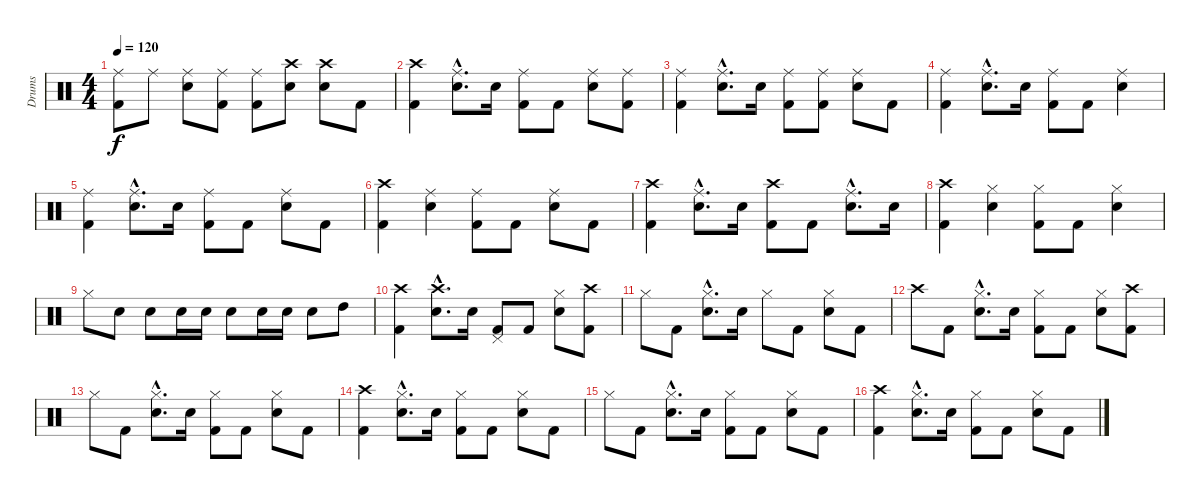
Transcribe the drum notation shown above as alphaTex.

\track ("Drums" "Drums") {instrument percussion}
\staff {score}
\articulation defaults
\ts (4 4)
\tempo 120
\clef neutral
\ks c
("Ride (middle)" "Kick (hit) 2").8{dy f} "Ride (middle)".8 ("Ride (middle)" "Snare (hit) 2").8 ("Ride (middle)" "Kick (hit) 2").8 ("Ride (middle)" "Kick (hit) 2").8 ("Crash high (hit)" "Snare (hit) 2").8 ("Crash high (hit)" "Snare (hit) 2").8 "Kick (hit) 2".8 |
("Crash high (hit)" "Kick (hit) 2").4 ("Ride (middle)"{hac} "Snare (hit) 2"{hac}).8{d} "Snare (hit) 2".16 ("Ride (middle)" "Kick (hit) 2").8 "Kick (hit) 2".8 ("Ride (middle)" "Snare (hit) 2").8 ("Ride (middle)" "Kick (hit) 2").8 |
("Ride (middle)" "Kick (hit) 2").4 ("Ride (middle)"{hac} "Snare (hit) 2"{hac}).8{d} "Snare (hit) 2".16 ("Ride (middle)" "Kick (hit) 2").8 ("Ride (middle)" "Kick (hit) 2").8 ("Ride (middle)" "Snare (hit) 2").8 "Kick (hit) 2".8 |
("Ride (middle)" "Kick (hit) 2").4 ("Ride (middle)"{hac} "Snare (hit) 2"{hac}).8{d} "Snare (hit) 2".16 ("Ride (middle)" "Kick (hit) 2").8 "Kick (hit) 2".8 ("Ride (middle)" "Snare (hit) 2").4 |
("Ride (middle)" "Kick (hit) 2").4 ("Ride (middle)"{hac} "Snare (hit) 2"{hac}).8{d} "Snare (hit) 2".16 ("Ride (middle)" "Kick (hit) 2").8 "Kick (hit) 2".8 ("Ride (middle)" "Snare (hit) 2").8 "Kick (hit) 2".8 |
("Crash high (hit)" "Kick (hit) 2").4 ("Ride (middle)" "Snare (hit) 2").4 ("Ride (middle)" "Kick (hit) 2").8 "Kick (hit) 2".8 ("Ride (middle)" "Snare (hit) 2").8 "Kick (hit) 2".8 |
("Crash high (hit)" "Kick (hit) 2").4 ("Ride (middle)"{hac} "Snare (hit) 2"{hac}).8{d} "Snare (hit) 2".16 ("Crash high (hit)" "Kick (hit) 2").8 "Kick (hit) 2".8 ("Ride (middle)"{hac} "Snare (hit) 2"{hac}).8{d} "Snare (hit) 2".16 |
("Crash high (hit)" "Kick (hit) 2").4 ("Hi-Hat (closed)" "Snare (hit) 2").4 ("Hi-Hat (closed)" "Kick (hit) 2").8 "Kick (hit) 2".8 ("Hi-Hat (closed)" "Snare (hit) 2").4 |
"Hi-Hat (closed)".8 "Snare (hit) 2".8 "Snare (hit) 2".8 "Snare (hit) 2".16 "Snare (hit) 2".16 "Snare (hit) 2".8 "Snare (hit) 2".16 "Snare (hit) 2".16 "Snare (hit) 2".8 "High Tom (hit)".8 |
("Crash high (hit)" "Kick (hit) 2").4 ("Crash high (hit)"{hac} "Snare (hit) 2"{hac}).8{d} "Snare (hit) 2".16 ("Pedal Hi-Hat (hit)" "Kick (hit) 2").8 "Kick (hit) 2".8 ("Hi-Hat (closed)" "Snare (hit) 2").8 ("Crash high (hit)" "Kick (hit) 2").8 |
"Hi-Hat (closed)".8 "Kick (hit) 2".8 ("Hi-Hat (closed)"{hac} "Snare (hit) 2"{hac}).8{d} "Snare (hit) 2".16 "Hi-Hat (closed)".8 "Kick (hit) 2".8 ("Hi-Hat (closed)" "Snare (hit) 2").8 "Kick (hit) 2".8 |
"Crash high (hit)".8 "Kick (hit) 2".8 ("Hi-Hat (closed)"{hac} "Snare (hit) 2"{hac}).8{d} "Snare (hit) 2".16 ("Hi-Hat (closed)" "Kick (hit) 2").8 "Kick (hit) 2".8 ("Hi-Hat (closed)" "Snare (hit) 2").8 ("Crash high (hit)" "Kick (hit) 2").8 |
"Hi-Hat (closed)".8 "Kick (hit) 2".8 ("Hi-Hat (closed)"{hac} "Snare (hit) 2"{hac}).8{d} "Snare (hit) 2".16 ("Hi-Hat (closed)" "Kick (hit) 2").8 "Kick (hit) 2".8 ("Hi-Hat (closed)" "Snare (hit) 2").8 "Kick (hit) 2".8 |
("Crash high (hit)" "Kick (hit) 2").4 ("Hi-Hat (closed)"{hac} "Snare (hit) 2"{hac}).8{d} "Snare (hit) 2".16 ("Hi-Hat (closed)" "Kick (hit) 2").8 "Kick (hit) 2".8 ("Hi-Hat (closed)" "Snare (hit) 2").8 "Kick (hit) 2".8 |
"Hi-Hat (closed)".8 "Kick (hit) 2".8 ("Hi-Hat (closed)"{hac} "Snare (hit) 2"{hac}).8{d} "Snare (hit) 2".16 ("Hi-Hat (closed)" "Kick (hit) 2").8 "Kick (hit) 2".8 ("Hi-Hat (closed)" "Snare (hit) 2").8 "Kick (hit) 2".8 |
("Crash high (hit)" "Kick (hit) 2").4 ("Hi-Hat (closed)"{hac} "Snare (hit) 2"{hac}).8{d} "Snare (hit) 2".16 ("Hi-Hat (closed)" "Kick (hit) 2").8 "Kick (hit) 2".8 ("Hi-Hat (closed)" "Snare (hit) 2").8 "Kick (hit) 2".8
